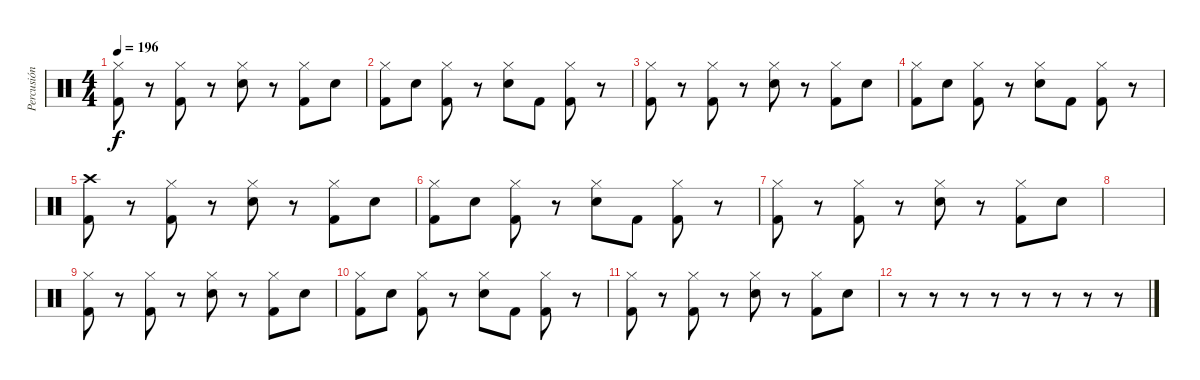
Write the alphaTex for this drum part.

\track ("Percusión" "Percusión") {instrument percussion}
\staff {score}
\articulation defaults
\ts (4 4)
\tempo 196
\clef neutral
\ks c
("Hi-Hat (closed)" "Kick (hit) 2").8{dy f} r.8 ("Hi-Hat (closed)" "Kick (hit) 2").8 r.8 ("Hi-Hat (closed)" "Snare (hit) 2").8 r.8 ("Hi-Hat (closed)" "Kick (hit) 2").8 "Snare (hit) 2".8 |
("Hi-Hat (closed)" "Kick (hit) 2").8 "Snare (hit) 2".8 ("Hi-Hat (closed)" "Kick (hit) 2").8 r.8 ("Hi-Hat (closed)" "Snare (hit) 2").8 "Kick (hit) 2".8 ("Hi-Hat (closed)" "Kick (hit) 2").8 r.8 |
("Hi-Hat (closed)" "Kick (hit) 2").8 r.8 ("Hi-Hat (closed)" "Kick (hit) 2").8 r.8 ("Hi-Hat (closed)" "Snare (hit) 2").8 r.8 ("Hi-Hat (closed)" "Kick (hit) 2").8 "Snare (hit) 2".8 |
("Hi-Hat (closed)" "Kick (hit) 2").8 "Snare (hit) 2".8 ("Hi-Hat (closed)" "Kick (hit) 2").8 r.8 ("Hi-Hat (closed)" "Snare (hit) 2").8 "Kick (hit) 2".8 ("Hi-Hat (closed)" "Kick (hit) 2").8 r.8 |
("Crash high (hit)" "Kick (hit) 2").8 r.8 ("Hi-Hat (closed)" "Kick (hit) 2").8 r.8 ("Hi-Hat (closed)" "Snare (hit) 2").8 r.8 ("Hi-Hat (closed)" "Kick (hit) 2").8 "Snare (hit) 2".8 |
("Hi-Hat (closed)" "Kick (hit) 2").8 "Snare (hit) 2".8 ("Hi-Hat (closed)" "Kick (hit) 2").8 r.8 ("Hi-Hat (closed)" "Snare (hit) 2").8 "Kick (hit) 2".8 ("Hi-Hat (closed)" "Kick (hit) 2").8 r.8 |
("Hi-Hat (closed)" "Kick (hit) 2").8 r.8 ("Hi-Hat (closed)" "Kick (hit) 2").8 r.8 ("Hi-Hat (closed)" "Snare (hit) 2").8 r.8 ("Hi-Hat (closed)" "Kick (hit) 2").8 "Snare (hit) 2".8 |
|
("Hi-Hat (closed)" "Kick (hit) 2").8 r.8 ("Hi-Hat (closed)" "Kick (hit) 2").8 r.8 ("Hi-Hat (closed)" "Snare (hit) 2").8 r.8 ("Hi-Hat (closed)" "Kick (hit) 2").8 "Snare (hit) 2".8 |
("Hi-Hat (closed)" "Kick (hit) 2").8 "Snare (hit) 2".8 ("Hi-Hat (closed)" "Kick (hit) 2").8 r.8 ("Hi-Hat (closed)" "Snare (hit) 2").8 "Kick (hit) 2".8 ("Hi-Hat (closed)" "Kick (hit) 2").8 r.8 |
("Hi-Hat (closed)" "Kick (hit) 2").8 r.8 ("Hi-Hat (closed)" "Kick (hit) 2").8 r.8 ("Hi-Hat (closed)" "Snare (hit) 2").8 r.8 ("Hi-Hat (closed)" "Kick (hit) 2").8 "Snare (hit) 2".8 |
r.8 r.8 r.8 r.8 r.8 r.8 r.8 r.8
